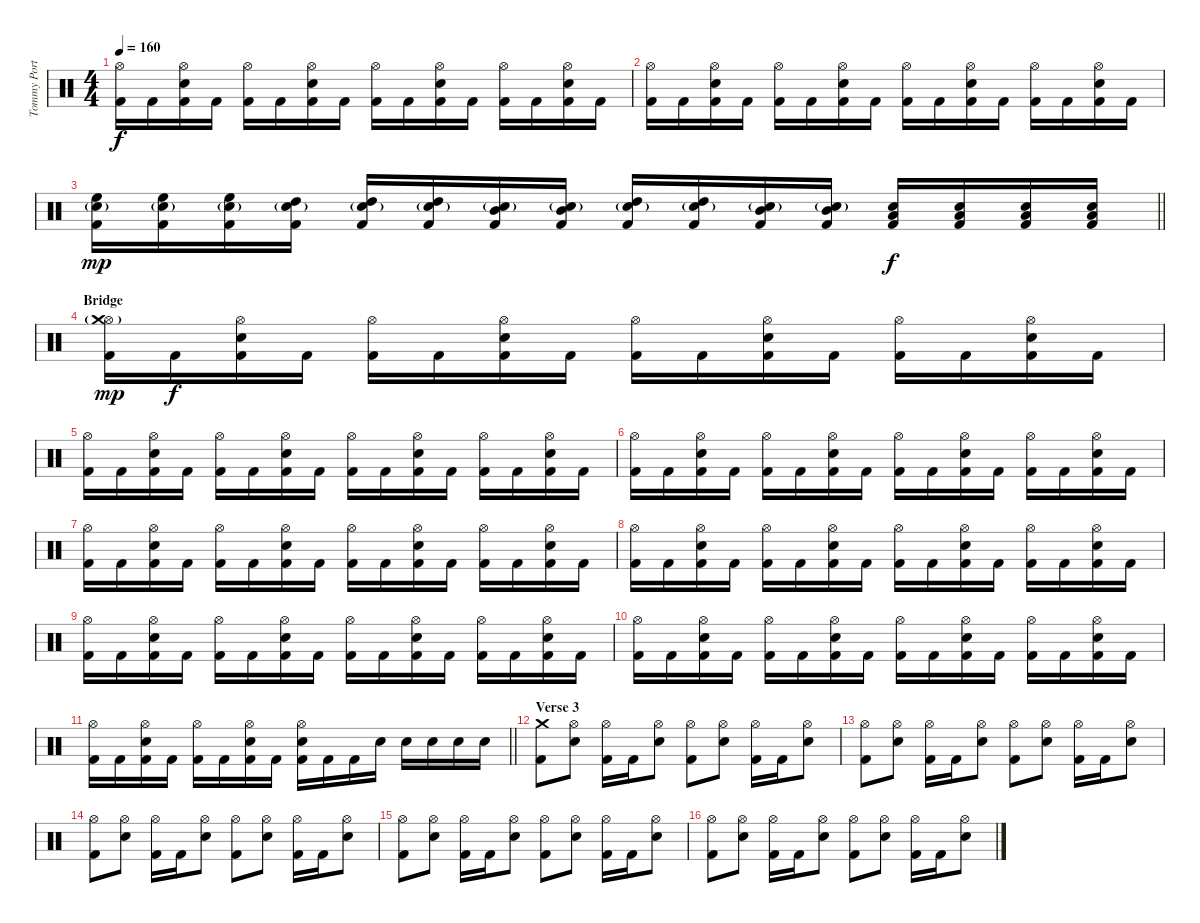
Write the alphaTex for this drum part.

\track ("Tommy Portino" "Tommy Port") {instrument percussion}
\staff {score}
\articulation defaults
\ts (4 4)
\tempo 160
\clef neutral
\ks c
("Hi-Hat (open)" "Kick (hit) 2").16{dy f} "Kick (hit) 2".16 ("Hi-Hat (open)" "Snare (hit) 2" "Kick (hit) 2").16 "Kick (hit) 2".16 ("Hi-Hat (open)" "Kick (hit) 2").16 "Kick (hit) 2".16 ("Hi-Hat (open)" "Snare (hit) 2" "Kick (hit) 2").16 "Kick (hit) 2".16 ("Hi-Hat (open)" "Kick (hit) 2").16 "Kick (hit) 2".16 ("Hi-Hat (open)" "Snare (hit) 2" "Kick (hit) 2").16 "Kick (hit) 2".16 ("Hi-Hat (open)" "Kick (hit) 2").16 "Kick (hit) 2".16 ("Hi-Hat (open)" "Snare (hit) 2" "Kick (hit) 2").16 "Kick (hit) 2".16 |
("Hi-Hat (open)" "Kick (hit) 2").16 "Kick (hit) 2".16 ("Hi-Hat (open)" "Snare (hit) 2" "Kick (hit) 2").16 "Kick (hit) 2".16 ("Hi-Hat (open)" "Kick (hit) 2").16 "Kick (hit) 2".16 ("Hi-Hat (open)" "Snare (hit) 2" "Kick (hit) 2").16 "Kick (hit) 2".16 ("Hi-Hat (open)" "Kick (hit) 2").16 "Kick (hit) 2".16 ("Hi-Hat (open)" "Snare (hit) 2" "Kick (hit) 2").16 "Kick (hit) 2".16 ("Hi-Hat (open)" "Kick (hit) 2").16 "Kick (hit) 2".16 ("Hi-Hat (open)" "Snare (hit) 2" "Kick (hit) 2").16 "Kick (hit) 2".16 |
\barLineRight lightlight
("High Floor Tom (hit)" "Snare (hit) 2"{g} "Kick (hit) 2").16{dy mp} ("High Floor Tom (hit)" "Snare (hit) 2"{g} "Kick (hit) 2").16 ("High Floor Tom (hit)" "Snare (hit) 2"{g} "Kick (hit) 2").16 ("High Tom (hit)" "Snare (hit) 2"{g} "Kick (hit) 2").16 ("High Tom (hit)" "Snare (hit) 2"{g} "Kick (hit) 2").16 ("High Tom (hit)" "Snare (hit) 2"{g} "Kick (hit) 2").16 ("Mid Tom (hit)" "Snare (hit) 2"{g} "Kick (hit) 2").16 ("Mid Tom (hit)" "Snare (hit) 2"{g} "Kick (hit) 2").16 ("High Tom (hit)" "Snare (hit) 2"{g} "Kick (hit) 2").16 ("High Tom (hit)" "Snare (hit) 2"{g} "Kick (hit) 2").16 ("Mid Tom (hit)" "Snare (hit) 2"{g} "Kick (hit) 2").16 ("Mid Tom (hit)" "Snare (hit) 2"{g} "Kick (hit) 2").16 ("Low Tom (hit)" "Snare (hit) 2" "Kick (hit) 2").16{dy f} ("Low Tom (hit)" "Snare (hit) 2" "Kick (hit) 2").16 ("Low Tom (hit)" "Snare (hit) 2" "Kick (hit) 2").16 ("Low Tom (hit)" "Snare (hit) 2" "Kick (hit) 2").16 |
\section ("" "Bridge")
("Hi-Hat (open)"{g} "Crash medium (hit)" "Kick (hit) 2").16{dy mp} "Kick (hit) 2".16{dy f} ("Hi-Hat (open)" "Snare (hit) 2" "Kick (hit) 2").16 "Kick (hit) 2".16 ("Hi-Hat (open)" "Kick (hit) 2").16 "Kick (hit) 2".16 ("Hi-Hat (open)" "Snare (hit) 2" "Kick (hit) 2").16 "Kick (hit) 2".16 ("Hi-Hat (open)" "Kick (hit) 2").16 "Kick (hit) 2".16 ("Hi-Hat (open)" "Snare (hit) 2" "Kick (hit) 2").16 "Kick (hit) 2".16 ("Hi-Hat (open)" "Kick (hit) 2").16 "Kick (hit) 2".16 ("Hi-Hat (open)" "Snare (hit) 2" "Kick (hit) 2").16 "Kick (hit) 2".16 |
("Hi-Hat (open)" "Kick (hit) 2").16 "Kick (hit) 2".16 ("Hi-Hat (open)" "Snare (hit) 2" "Kick (hit) 2").16 "Kick (hit) 2".16 ("Hi-Hat (open)" "Kick (hit) 2").16 "Kick (hit) 2".16 ("Hi-Hat (open)" "Snare (hit) 2" "Kick (hit) 2").16 "Kick (hit) 2".16 ("Hi-Hat (open)" "Kick (hit) 2").16 "Kick (hit) 2".16 ("Hi-Hat (open)" "Snare (hit) 2" "Kick (hit) 2").16 "Kick (hit) 2".16 ("Hi-Hat (open)" "Kick (hit) 2").16 "Kick (hit) 2".16 ("Hi-Hat (open)" "Snare (hit) 2" "Kick (hit) 2").16 "Kick (hit) 2".16 |
("Hi-Hat (open)" "Kick (hit) 2").16 "Kick (hit) 2".16 ("Hi-Hat (open)" "Snare (hit) 2" "Kick (hit) 2").16 "Kick (hit) 2".16 ("Hi-Hat (open)" "Kick (hit) 2").16 "Kick (hit) 2".16 ("Hi-Hat (open)" "Snare (hit) 2" "Kick (hit) 2").16 "Kick (hit) 2".16 ("Hi-Hat (open)" "Kick (hit) 2").16 "Kick (hit) 2".16 ("Hi-Hat (open)" "Snare (hit) 2" "Kick (hit) 2").16 "Kick (hit) 2".16 ("Hi-Hat (open)" "Kick (hit) 2").16 "Kick (hit) 2".16 ("Hi-Hat (open)" "Snare (hit) 2" "Kick (hit) 2").16 "Kick (hit) 2".16 |
("Hi-Hat (open)" "Kick (hit) 2").16 "Kick (hit) 2".16 ("Hi-Hat (open)" "Snare (hit) 2" "Kick (hit) 2").16 "Kick (hit) 2".16 ("Hi-Hat (open)" "Kick (hit) 2").16 "Kick (hit) 2".16 ("Hi-Hat (open)" "Snare (hit) 2" "Kick (hit) 2").16 "Kick (hit) 2".16 ("Hi-Hat (open)" "Kick (hit) 2").16 "Kick (hit) 2".16 ("Hi-Hat (open)" "Snare (hit) 2" "Kick (hit) 2").16 "Kick (hit) 2".16 ("Hi-Hat (open)" "Kick (hit) 2").16 "Kick (hit) 2".16 ("Hi-Hat (open)" "Snare (hit) 2" "Kick (hit) 2").16 "Kick (hit) 2".16 |
("Hi-Hat (open)" "Kick (hit) 2").16 "Kick (hit) 2".16 ("Hi-Hat (open)" "Snare (hit) 2" "Kick (hit) 2").16 "Kick (hit) 2".16 ("Hi-Hat (open)" "Kick (hit) 2").16 "Kick (hit) 2".16 ("Hi-Hat (open)" "Snare (hit) 2" "Kick (hit) 2").16 "Kick (hit) 2".16 ("Hi-Hat (open)" "Kick (hit) 2").16 "Kick (hit) 2".16 ("Hi-Hat (open)" "Snare (hit) 2" "Kick (hit) 2").16 "Kick (hit) 2".16 ("Hi-Hat (open)" "Kick (hit) 2").16 "Kick (hit) 2".16 ("Hi-Hat (open)" "Snare (hit) 2" "Kick (hit) 2").16 "Kick (hit) 2".16 |
("Hi-Hat (open)" "Kick (hit) 2").16 "Kick (hit) 2".16 ("Hi-Hat (open)" "Snare (hit) 2" "Kick (hit) 2").16 "Kick (hit) 2".16 ("Hi-Hat (open)" "Kick (hit) 2").16 "Kick (hit) 2".16 ("Hi-Hat (open)" "Snare (hit) 2" "Kick (hit) 2").16 "Kick (hit) 2".16 ("Hi-Hat (open)" "Kick (hit) 2").16 "Kick (hit) 2".16 ("Hi-Hat (open)" "Snare (hit) 2" "Kick (hit) 2").16 "Kick (hit) 2".16 ("Hi-Hat (open)" "Kick (hit) 2").16 "Kick (hit) 2".16 ("Hi-Hat (open)" "Snare (hit) 2" "Kick (hit) 2").16 "Kick (hit) 2".16 |
("Hi-Hat (open)" "Kick (hit) 2").16 "Kick (hit) 2".16 ("Hi-Hat (open)" "Snare (hit) 2" "Kick (hit) 2").16 "Kick (hit) 2".16 ("Hi-Hat (open)" "Kick (hit) 2").16 "Kick (hit) 2".16 ("Hi-Hat (open)" "Snare (hit) 2" "Kick (hit) 2").16 "Kick (hit) 2".16 ("Hi-Hat (open)" "Kick (hit) 2").16 "Kick (hit) 2".16 ("Hi-Hat (open)" "Snare (hit) 2" "Kick (hit) 2").16 "Kick (hit) 2".16 ("Hi-Hat (open)" "Kick (hit) 2").16 "Kick (hit) 2".16 ("Hi-Hat (open)" "Snare (hit) 2" "Kick (hit) 2").16 "Kick (hit) 2".16 |
\barLineRight lightlight
("Hi-Hat (open)" "Kick (hit) 2").16 "Kick (hit) 2".16 ("Hi-Hat (open)" "Snare (hit) 2" "Kick (hit) 2").16 "Kick (hit) 2".16 ("Hi-Hat (open)" "Kick (hit) 2").16 "Kick (hit) 2".16 ("Hi-Hat (open)" "Snare (hit) 2" "Kick (hit) 2").16 "Kick (hit) 2".16 ("Hi-Hat (open)" "Snare (hit) 2" "Kick (hit) 2").16 "Kick (hit) 2".16 "Kick (hit) 2".16 "Snare (hit) 2".16 "Snare (hit) 2".16 "Snare (hit) 2".16 "Snare (hit) 2".16 "Snare (hit) 2".16 |
\section ("" "Verse 3")
("Crash medium (hit)" "Kick (hit) 2").8 ("Hi-Hat (open)" "Snare (hit) 2").8 ("Hi-Hat (open)" "Kick (hit) 2").16 "Kick (hit) 2".16 ("Hi-Hat (open)" "Snare (hit) 2").8 ("Hi-Hat (open)" "Kick (hit) 2").8 ("Hi-Hat (open)" "Snare (hit) 2").8 ("Hi-Hat (open)" "Kick (hit) 2").16 "Kick (hit) 2".16 ("Hi-Hat (open)" "Snare (hit) 2").8 |
("Hi-Hat (open)" "Kick (hit) 2").8 ("Hi-Hat (open)" "Snare (hit) 2").8 ("Hi-Hat (open)" "Kick (hit) 2").16 "Kick (hit) 2".16 ("Hi-Hat (open)" "Snare (hit) 2").8 ("Hi-Hat (open)" "Kick (hit) 2").8 ("Hi-Hat (open)" "Snare (hit) 2").8 ("Hi-Hat (open)" "Kick (hit) 2").16 "Kick (hit) 2".16 ("Hi-Hat (open)" "Snare (hit) 2").8 |
("Hi-Hat (open)" "Kick (hit) 2").8 ("Hi-Hat (open)" "Snare (hit) 2").8 ("Hi-Hat (open)" "Kick (hit) 2").16 "Kick (hit) 2".16 ("Hi-Hat (open)" "Snare (hit) 2").8 ("Hi-Hat (open)" "Kick (hit) 2").8 ("Hi-Hat (open)" "Snare (hit) 2").8 ("Hi-Hat (open)" "Kick (hit) 2").16 "Kick (hit) 2".16 ("Hi-Hat (open)" "Snare (hit) 2").8 |
("Hi-Hat (open)" "Kick (hit) 2").8 ("Hi-Hat (open)" "Snare (hit) 2").8 ("Hi-Hat (open)" "Kick (hit) 2").16 "Kick (hit) 2".16 ("Hi-Hat (open)" "Snare (hit) 2").8 ("Hi-Hat (open)" "Kick (hit) 2").8 ("Hi-Hat (open)" "Snare (hit) 2").8 ("Hi-Hat (open)" "Kick (hit) 2").16 "Kick (hit) 2".16 ("Hi-Hat (open)" "Snare (hit) 2").8 |
("Hi-Hat (open)" "Kick (hit) 2").8 ("Hi-Hat (open)" "Snare (hit) 2").8 ("Hi-Hat (open)" "Kick (hit) 2").16 "Kick (hit) 2".16 ("Hi-Hat (open)" "Snare (hit) 2").8 ("Hi-Hat (open)" "Kick (hit) 2").8 ("Hi-Hat (open)" "Snare (hit) 2").8 ("Hi-Hat (open)" "Kick (hit) 2").16 "Kick (hit) 2".16 ("Hi-Hat (open)" "Snare (hit) 2").8
